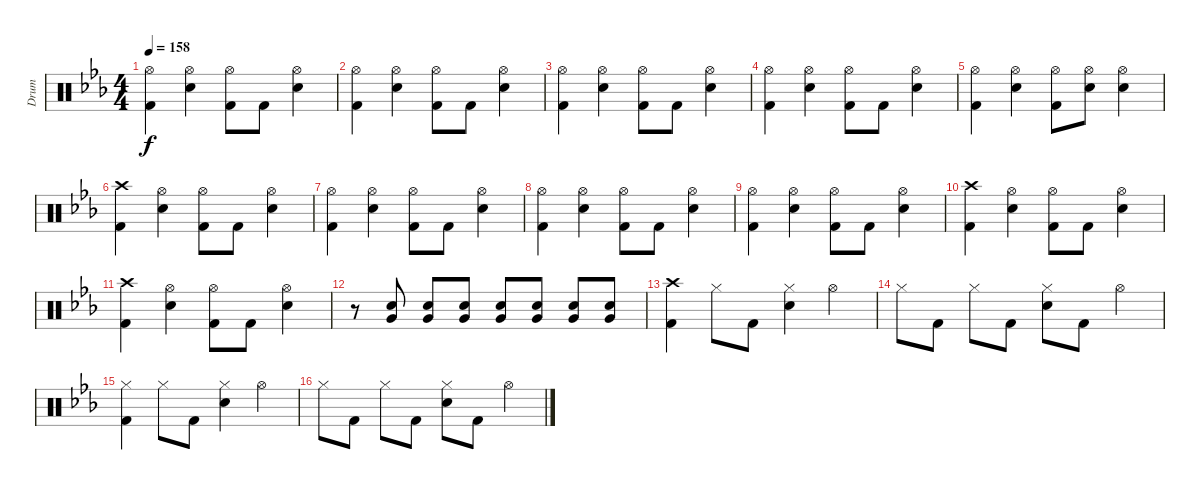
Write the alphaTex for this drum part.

\track ("Drum" "Drum") {instrument percussion}
\staff {score}
\articulation defaults
\ts (4 4)
\tempo 158
\clef neutral
\ks eb
("Hi-Hat (open)" "Kick (hit) 2").4{dy f} ("Hi-Hat (open)" "Snare (hit) 2").4 ("Hi-Hat (open)" "Kick (hit) 2").8 "Kick (hit) 2".8 ("Hi-Hat (open)" "Snare (hit) 2").4 |
("Hi-Hat (open)" "Kick (hit) 2").4 ("Hi-Hat (open)" "Snare (hit) 2").4 ("Hi-Hat (open)" "Kick (hit) 2").8 "Kick (hit) 2".8 ("Hi-Hat (open)" "Snare (hit) 2").4 |
("Hi-Hat (open)" "Kick (hit) 2").4 ("Hi-Hat (open)" "Snare (hit) 2").4 ("Hi-Hat (open)" "Kick (hit) 2").8 "Kick (hit) 2".8 ("Hi-Hat (open)" "Snare (hit) 2").4 |
("Hi-Hat (open)" "Kick (hit) 2").4 ("Hi-Hat (open)" "Snare (hit) 2").4 ("Hi-Hat (open)" "Kick (hit) 2").8 "Kick (hit) 2".8 ("Hi-Hat (open)" "Snare (hit) 2").4 |
("Hi-Hat (open)" "Kick (hit) 2").4 ("Hi-Hat (open)" "Snare (hit) 2").4 ("Hi-Hat (open)" "Kick (hit) 2").8 ("Hi-Hat (open)" "Snare (hit) 2").8 ("Hi-Hat (open)" "Snare (hit) 2").4 |
("Crash high (hit)" "Kick (hit) 2").4 ("Hi-Hat (open)" "Snare (hit) 2").4 ("Hi-Hat (open)" "Kick (hit) 2").8 "Kick (hit) 2".8 ("Hi-Hat (open)" "Snare (hit) 2").4 |
("Hi-Hat (open)" "Kick (hit) 2").4 ("Hi-Hat (open)" "Snare (hit) 2").4 ("Hi-Hat (open)" "Kick (hit) 2").8 "Kick (hit) 2".8 ("Hi-Hat (open)" "Snare (hit) 2").4 |
("Hi-Hat (open)" "Kick (hit) 2").4 ("Hi-Hat (open)" "Snare (hit) 2").4 ("Hi-Hat (open)" "Kick (hit) 2").8 "Kick (hit) 2".8 ("Hi-Hat (open)" "Snare (hit) 2").4 |
("Hi-Hat (open)" "Kick (hit) 2").4 ("Hi-Hat (open)" "Snare (hit) 2").4 ("Hi-Hat (open)" "Kick (hit) 2").8 "Kick (hit) 2".8 ("Hi-Hat (open)" "Snare (hit) 2").4 |
("Crash high (hit)" "Kick (hit) 2").4 ("Hi-Hat (open)" "Snare (hit) 2").4 ("Hi-Hat (open)" "Kick (hit) 2").8 "Kick (hit) 2".8 ("Hi-Hat (open)" "Snare (hit) 2").4 |
("Crash high (hit)" "Kick (hit) 2").4 ("Hi-Hat (open)" "Snare (hit) 2").4 ("Hi-Hat (open)" "Kick (hit) 2").8 "Kick (hit) 2".8 ("Hi-Hat (open)" "Snare (hit) 2").4 |
r.8 ("Snare (hit) 2" "Very Low Tom (hit)").8 ("Snare (hit) 2" "Very Low Tom (hit)").8 ("Snare (hit) 2" "Very Low Tom (hit)").8 ("Snare (hit) 2" "Very Low Tom (hit)").8 ("Snare (hit) 2" "Very Low Tom (hit)").8 ("Snare (hit) 2" "Very Low Tom (hit)").8 ("Snare (hit) 2" "Very Low Tom (hit)").8 |
("Crash high (hit)" "Kick (hit) 2").4 "Hi-Hat (closed)".8 "Kick (hit) 2".8 ("Hi-Hat (closed)" "Snare (hit) 2").4 "Hi-Hat (open)".4 |
"Hi-Hat (closed)".8 "Kick (hit) 2".8 "Hi-Hat (closed)".8 "Kick (hit) 2".8 ("Hi-Hat (closed)" "Snare (hit) 2").8 "Kick (hit) 2".8 "Hi-Hat (open)".4 |
("Hi-Hat (closed)" "Kick (hit) 2").4 "Hi-Hat (closed)".8 "Kick (hit) 2".8 ("Hi-Hat (closed)" "Snare (hit) 2").4 "Hi-Hat (open)".4 |
"Hi-Hat (closed)".8 "Kick (hit) 2".8 "Hi-Hat (closed)".8 "Kick (hit) 2".8 ("Hi-Hat (closed)" "Snare (hit) 2").8 "Kick (hit) 2".8 "Hi-Hat (open)".4
